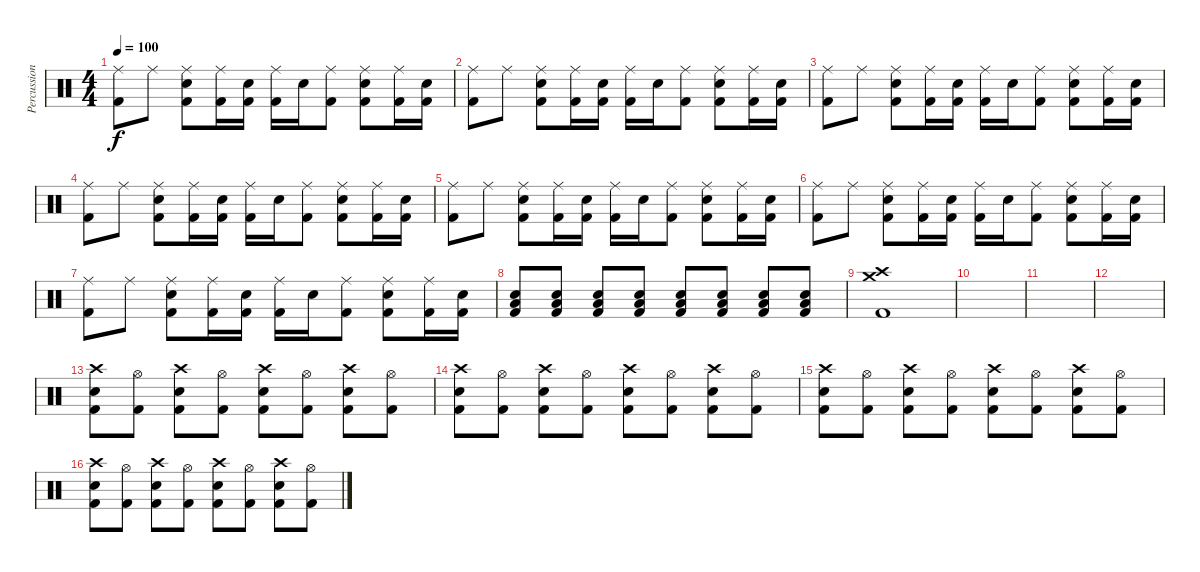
\track ("Percussion" "Percussion") {instrument percussion}
\staff {score}
\articulation defaults
\ts (4 4)
\tempo 100
\clef neutral
\ks c
("Ride (middle)" "Kick (hit) 2").8{dy f} "Ride (middle)".8 ("Electric Snare (hit)" "Ride (middle)" "Kick (hit) 2").8 ("Ride (middle)" "Kick (hit) 2").16 ("Electric Snare (hit)" "Kick (hit) 2").16 ("Ride (middle)" "Kick (hit) 2").16 "Electric Snare (hit)".16 ("Ride (middle)" "Kick (hit) 2").8 ("Electric Snare (hit)" "Ride (middle)" "Kick (hit) 2").8 ("Ride (middle)" "Kick (hit) 2").16 ("Electric Snare (hit)" "Kick (hit) 2").16 |
("Ride (middle)" "Kick (hit) 2").8 "Ride (middle)".8 ("Electric Snare (hit)" "Ride (middle)" "Kick (hit) 2").8 ("Ride (middle)" "Kick (hit) 2").16 ("Electric Snare (hit)" "Kick (hit) 2").16 ("Ride (middle)" "Kick (hit) 2").16 "Electric Snare (hit)".16 ("Ride (middle)" "Kick (hit) 2").8 ("Electric Snare (hit)" "Ride (middle)" "Kick (hit) 2").8 ("Ride (middle)" "Kick (hit) 2").16 ("Electric Snare (hit)" "Kick (hit) 2").16 |
("Ride (middle)" "Kick (hit) 2").8 "Ride (middle)".8 ("Electric Snare (hit)" "Ride (middle)" "Kick (hit) 2").8 ("Ride (middle)" "Kick (hit) 2").16 ("Electric Snare (hit)" "Kick (hit) 2").16 ("Ride (middle)" "Kick (hit) 2").16 "Electric Snare (hit)".16 ("Ride (middle)" "Kick (hit) 2").8 ("Electric Snare (hit)" "Ride (middle)" "Kick (hit) 2").8 ("Ride (middle)" "Kick (hit) 2").16 ("Electric Snare (hit)" "Kick (hit) 2").16 |
("Ride (middle)" "Kick (hit) 2").8 "Ride (middle)".8 ("Electric Snare (hit)" "Ride (middle)" "Kick (hit) 2").8 ("Ride (middle)" "Kick (hit) 2").16 ("Electric Snare (hit)" "Kick (hit) 2").16 ("Ride (middle)" "Kick (hit) 2").16 "Electric Snare (hit)".16 ("Ride (middle)" "Kick (hit) 2").8 ("Electric Snare (hit)" "Ride (middle)" "Kick (hit) 2").8 ("Ride (middle)" "Kick (hit) 2").16 ("Electric Snare (hit)" "Kick (hit) 2").16 |
("Ride (middle)" "Kick (hit) 2").8 "Ride (middle)".8 ("Electric Snare (hit)" "Ride (middle)" "Kick (hit) 2").8 ("Ride (middle)" "Kick (hit) 2").16 ("Electric Snare (hit)" "Kick (hit) 2").16 ("Ride (middle)" "Kick (hit) 2").16 "Electric Snare (hit)".16 ("Ride (middle)" "Kick (hit) 2").8 ("Electric Snare (hit)" "Ride (middle)" "Kick (hit) 2").8 ("Ride (middle)" "Kick (hit) 2").16 ("Electric Snare (hit)" "Kick (hit) 2").16 |
("Ride (middle)" "Kick (hit) 2").8 "Ride (middle)".8 ("Electric Snare (hit)" "Ride (middle)" "Kick (hit) 2").8 ("Ride (middle)" "Kick (hit) 2").16 ("Electric Snare (hit)" "Kick (hit) 2").16 ("Ride (middle)" "Kick (hit) 2").16 "Electric Snare (hit)".16 ("Ride (middle)" "Kick (hit) 2").8 ("Electric Snare (hit)" "Ride (middle)" "Kick (hit) 2").8 ("Ride (middle)" "Kick (hit) 2").16 ("Electric Snare (hit)" "Kick (hit) 2").16 |
("Ride (middle)" "Kick (hit) 2").8 "Ride (middle)".8 ("Electric Snare (hit)" "Ride (middle)" "Kick (hit) 2").8 ("Ride (middle)" "Kick (hit) 2").16 ("Electric Snare (hit)" "Kick (hit) 2").16 ("Ride (middle)" "Kick (hit) 2").16 "Electric Snare (hit)".16 ("Ride (middle)" "Kick (hit) 2").8 ("Electric Snare (hit)" "Ride (middle)" "Kick (hit) 2").8 ("Ride (middle)" "Kick (hit) 2").16 ("Electric Snare (hit)" "Kick (hit) 2").16 |
("Low Floor Tom (hit)" "Electric Snare (hit)" "Kick (hit) 2").8 ("Low Floor Tom (hit)" "Electric Snare (hit)" "Kick (hit) 2").8 ("Low Floor Tom (hit)" "Electric Snare (hit)" "Kick (hit) 2").8 ("Low Floor Tom (hit)" "Electric Snare (hit)" "Kick (hit) 2").8 ("Low Floor Tom (hit)" "Electric Snare (hit)" "Kick (hit) 2").8 ("Low Floor Tom (hit)" "Electric Snare (hit)" "Kick (hit) 2").8 ("Low Floor Tom (hit)" "Electric Snare (hit)" "Kick (hit) 2").8 ("Low Floor Tom (hit)" "Electric Snare (hit)" "Kick (hit) 2").8 |
("Crash medium (hit)" "Crash high (hit)" "Kick (hit) 2").1 |
|
|
|
("Crash high (hit)" "Electric Snare (hit)" "Kick (hit) 2").8 ("Hi-Hat (open)" "Kick (hit) 2").8 ("Crash high (hit)" "Electric Snare (hit)" "Kick (hit) 2").8 ("Hi-Hat (open)" "Kick (hit) 2").8 ("Crash high (hit)" "Electric Snare (hit)" "Kick (hit) 2").8 ("Hi-Hat (open)" "Kick (hit) 2").8 ("Crash high (hit)" "Electric Snare (hit)" "Kick (hit) 2").8 ("Hi-Hat (open)" "Kick (hit) 2").8 |
("Crash high (hit)" "Electric Snare (hit)" "Kick (hit) 2").8 ("Hi-Hat (open)" "Kick (hit) 2").8 ("Crash high (hit)" "Electric Snare (hit)" "Kick (hit) 2").8 ("Hi-Hat (open)" "Kick (hit) 2").8 ("Crash high (hit)" "Electric Snare (hit)" "Kick (hit) 2").8 ("Hi-Hat (open)" "Kick (hit) 2").8 ("Crash high (hit)" "Electric Snare (hit)" "Kick (hit) 2").8 ("Hi-Hat (open)" "Kick (hit) 2").8 |
("Crash high (hit)" "Electric Snare (hit)" "Kick (hit) 2").8 ("Hi-Hat (open)" "Kick (hit) 2").8 ("Crash high (hit)" "Electric Snare (hit)" "Kick (hit) 2").8 ("Hi-Hat (open)" "Kick (hit) 2").8 ("Crash high (hit)" "Electric Snare (hit)" "Kick (hit) 2").8 ("Hi-Hat (open)" "Kick (hit) 2").8 ("Crash high (hit)" "Electric Snare (hit)" "Kick (hit) 2").8 ("Hi-Hat (open)" "Kick (hit) 2").8 |
("Crash high (hit)" "Electric Snare (hit)" "Kick (hit) 2").8 ("Hi-Hat (open)" "Kick (hit) 2").8 ("Crash high (hit)" "Electric Snare (hit)" "Kick (hit) 2").8 ("Hi-Hat (open)" "Kick (hit) 2").8 ("Crash high (hit)" "Electric Snare (hit)" "Kick (hit) 2").8 ("Hi-Hat (open)" "Kick (hit) 2").8 ("Crash high (hit)" "Electric Snare (hit)" "Kick (hit) 2").8 ("Hi-Hat (open)" "Kick (hit) 2").8
